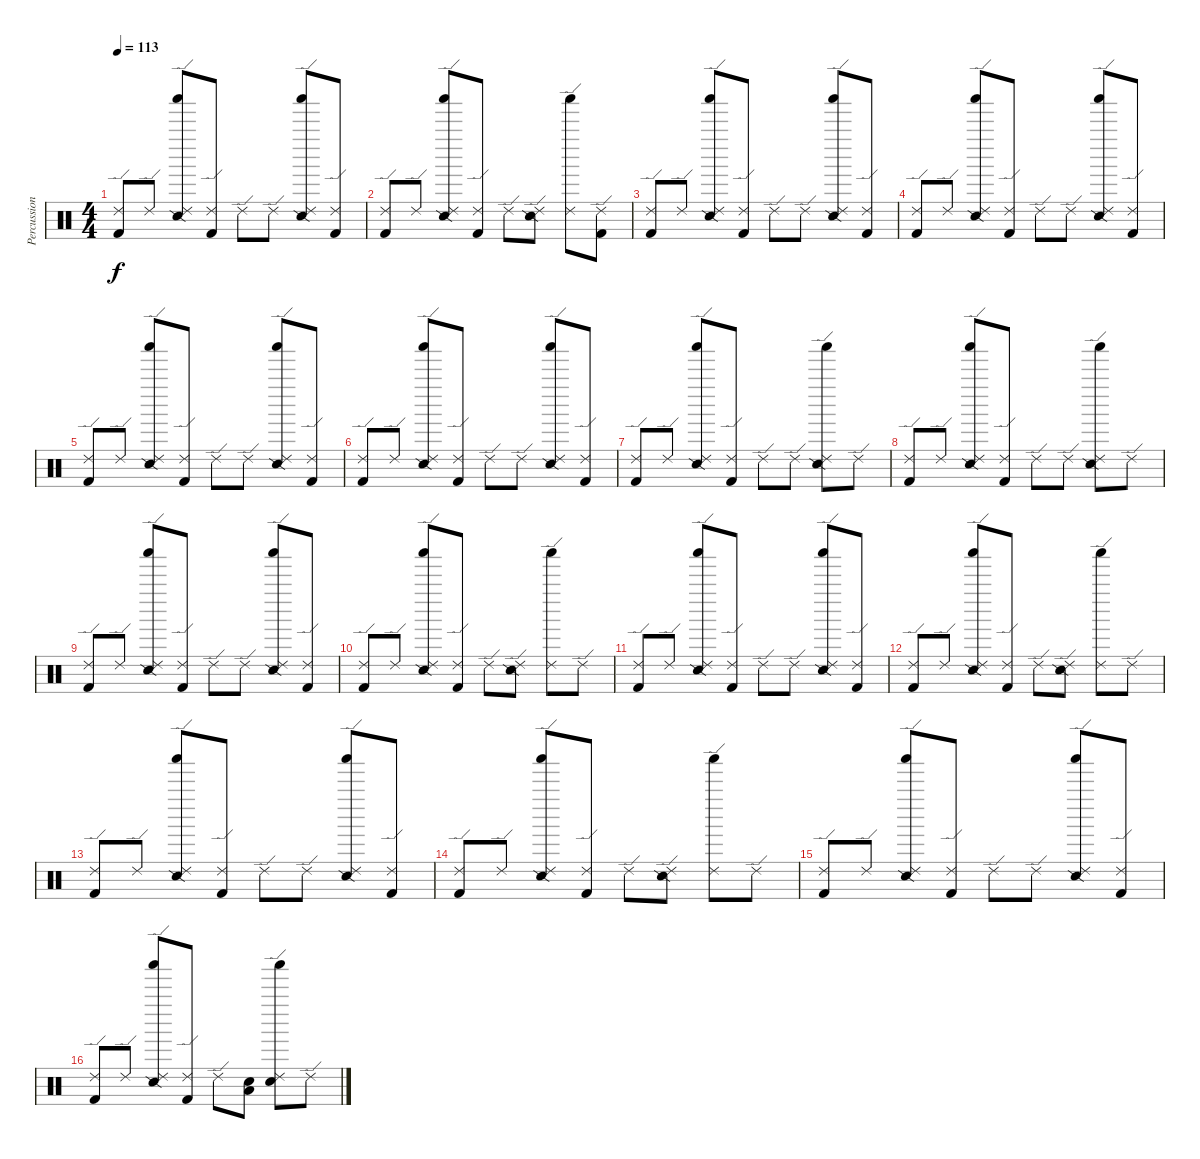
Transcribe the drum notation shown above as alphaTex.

\track ("Percussion" "Percussion") {instrument percussion}
\staff {score}
\articulation defaults
\ts (4 4)
\tempo 113
\clef neutral
\ks c
("Ride (edge) 2" "Kick (hit) 2").8{dy f} "Ride (edge) 2".8 ("Shaker (hit)" "Ride (edge) 2" "Snare (side stick) 2").8 ("Ride (edge) 2" "Kick (hit) 2").8 "Ride (edge) 2".8 "Ride (edge) 2".8 ("Shaker (hit)" "Ride (edge) 2" "Snare (side stick) 2").8 ("Ride (edge) 2" "Kick (hit) 2").8 |
("Ride (edge) 2" "Kick (hit) 2").8 "Ride (edge) 2".8 ("Shaker (hit)" "Ride (edge) 2" "Snare (side stick) 2").8 ("Ride (edge) 2" "Kick (hit) 2").8 "Ride (edge) 2".8 ("Ride (edge) 2" "Snare (side stick) 2").8 ("Shaker (hit)" "Ride (edge) 2").8 ("Ride (edge) 2" "Kick (hit) 2").8 |
("Ride (edge) 2" "Kick (hit) 2").8 "Ride (edge) 2".8 ("Shaker (hit)" "Ride (edge) 2" "Snare (side stick) 2").8 ("Ride (edge) 2" "Kick (hit) 2").8 "Ride (edge) 2".8 "Ride (edge) 2".8 ("Shaker (hit)" "Ride (edge) 2" "Snare (side stick) 2").8 ("Ride (edge) 2" "Kick (hit) 2").8 |
("Ride (edge) 2" "Kick (hit) 2").8 "Ride (edge) 2".8 ("Shaker (hit)" "Ride (edge) 2" "Snare (side stick) 2").8 ("Ride (edge) 2" "Kick (hit) 2").8 "Ride (edge) 2".8 "Ride (edge) 2".8 ("Shaker (hit)" "Ride (edge) 2" "Snare (side stick) 2").8 ("Ride (edge) 2" "Kick (hit) 2").8 |
("Ride (edge) 2" "Kick (hit) 2").8 "Ride (edge) 2".8 ("Shaker (hit)" "Ride (edge) 2" "Snare (side stick) 2").8 ("Ride (edge) 2" "Kick (hit) 2").8 "Ride (edge) 2".8 "Ride (edge) 2".8 ("Shaker (hit)" "Ride (edge) 2" "Snare (side stick) 2").8 ("Ride (edge) 2" "Kick (hit) 2").8 |
("Ride (edge) 2" "Kick (hit) 2").8 "Ride (edge) 2".8 ("Shaker (hit)" "Ride (edge) 2" "Snare (side stick) 2").8 ("Ride (edge) 2" "Kick (hit) 2").8 "Ride (edge) 2".8 "Ride (edge) 2".8 ("Shaker (hit)" "Ride (edge) 2" "Snare (side stick) 2").8 ("Ride (edge) 2" "Kick (hit) 2").8 |
("Ride (edge) 2" "Kick (hit) 2").8 "Ride (edge) 2".8 ("Shaker (hit)" "Ride (edge) 2" "Snare (side stick) 2").8 ("Ride (edge) 2" "Kick (hit) 2").8 "Ride (edge) 2".8 "Ride (edge) 2".8 ("Shaker (hit)" "Ride (edge) 2" "Snare (side stick) 2").8 "Ride (edge) 2".8 |
("Ride (edge) 2" "Kick (hit) 2").8 "Ride (edge) 2".8 ("Shaker (hit)" "Ride (edge) 2" "Snare (side stick) 2").8 ("Ride (edge) 2" "Kick (hit) 2").8 "Ride (edge) 2".8 "Ride (edge) 2".8 ("Shaker (hit)" "Ride (edge) 2" "Snare (side stick) 2").8 "Ride (edge) 2".8 |
("Ride (edge) 2" "Kick (hit) 2").8 "Ride (edge) 2".8 ("Shaker (hit)" "Ride (edge) 2" "Snare (side stick) 2").8 ("Ride (edge) 2" "Kick (hit) 2").8 "Ride (edge) 2".8 "Ride (edge) 2".8 ("Shaker (hit)" "Ride (edge) 2" "Snare (side stick) 2").8 ("Ride (edge) 2" "Kick (hit) 2").8 |
("Ride (edge) 2" "Kick (hit) 2").8 "Ride (edge) 2".8 ("Shaker (hit)" "Ride (edge) 2" "Snare (side stick) 2").8 ("Ride (edge) 2" "Kick (hit) 2").8 "Ride (edge) 2".8 ("Ride (edge) 2" "Snare (side stick) 2").8 ("Shaker (hit)" "Ride (edge) 2").8 "Ride (edge) 2".8 |
("Ride (edge) 2" "Kick (hit) 2").8 "Ride (edge) 2".8 ("Shaker (hit)" "Ride (edge) 2" "Snare (side stick) 2").8 ("Ride (edge) 2" "Kick (hit) 2").8 "Ride (edge) 2".8 "Ride (edge) 2".8 ("Shaker (hit)" "Ride (edge) 2" "Snare (side stick) 2").8 ("Ride (edge) 2" "Kick (hit) 2").8 |
("Ride (edge) 2" "Kick (hit) 2").8 "Ride (edge) 2".8 ("Shaker (hit)" "Ride (edge) 2" "Snare (side stick) 2").8 ("Ride (edge) 2" "Kick (hit) 2").8 "Ride (edge) 2".8 ("Ride (edge) 2" "Snare (side stick) 2").8 ("Shaker (hit)" "Ride (edge) 2").8 "Ride (edge) 2".8 |
("Ride (edge) 2" "Kick (hit) 2").8 "Ride (edge) 2".8 ("Shaker (hit)" "Ride (edge) 2" "Snare (side stick) 2").8 ("Ride (edge) 2" "Kick (hit) 2").8 "Ride (edge) 2".8 "Ride (edge) 2".8 ("Shaker (hit)" "Ride (edge) 2" "Snare (side stick) 2").8 ("Ride (edge) 2" "Kick (hit) 2").8 |
("Ride (edge) 2" "Kick (hit) 2").8 "Ride (edge) 2".8 ("Shaker (hit)" "Ride (edge) 2" "Snare (side stick) 2").8 ("Ride (edge) 2" "Kick (hit) 2").8 "Ride (edge) 2".8 ("Ride (edge) 2" "Snare (side stick) 2").8 ("Shaker (hit)" "Ride (edge) 2").8 "Ride (edge) 2".8 |
("Ride (edge) 2" "Kick (hit) 2").8 "Ride (edge) 2".8 ("Shaker (hit)" "Ride (edge) 2" "Snare (side stick) 2").8 ("Ride (edge) 2" "Kick (hit) 2").8 "Ride (edge) 2".8 "Ride (edge) 2".8 ("Shaker (hit)" "Ride (edge) 2" "Snare (side stick) 2").8 ("Ride (edge) 2" "Kick (hit) 2").8 |
("Ride (edge) 2" "Kick (hit) 2").8 "Ride (edge) 2".8 ("Shaker (hit)" "Ride (edge) 2" "Snare (side stick) 2").8 ("Ride (edge) 2" "Kick (hit) 2").8 "Ride (edge) 2".8 ("Snare (hit) 2" "Low Tom (hit)").8 ("Shaker (hit)" "Ride (edge) 2" "Electric Snare (hit)").8 "Ride (edge) 2".8
